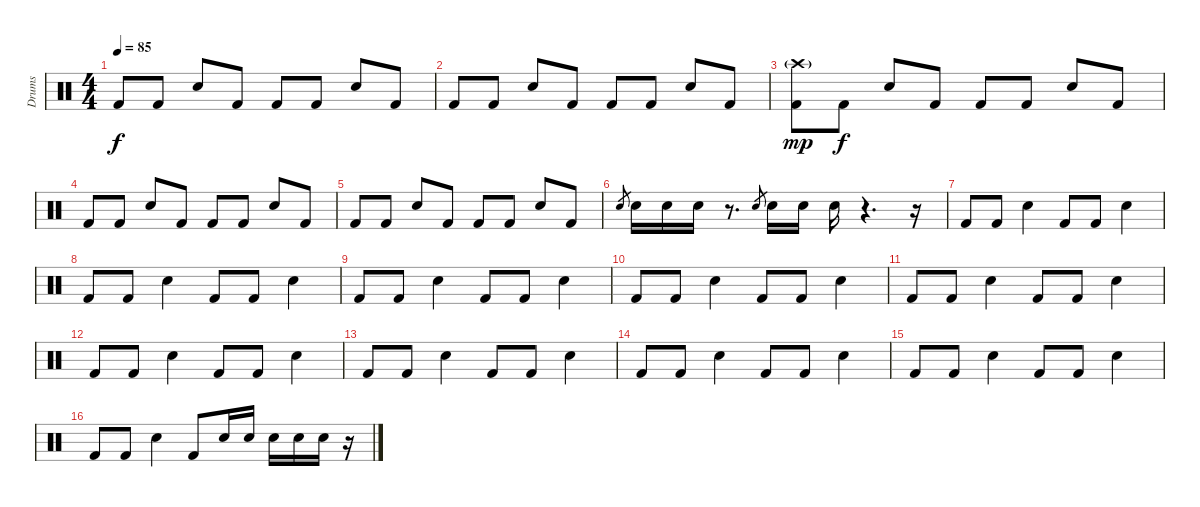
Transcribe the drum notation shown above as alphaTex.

\track ("Drums" "Drums") {instrument percussion}
\staff {score}
\articulation defaults
\ts (4 4)
\tempo 85
\clef neutral
\ks c "Kick (hit) 2".8{dy f} "Kick (hit) 2".8 "Electric Snare (hit)".8 "Kick (hit) 2".8 "Kick (hit) 2".8 "Kick (hit) 2".8 "Electric Snare (hit)".8 "Kick (hit) 2".8
|
"Kick (hit) 2".8 "Kick (hit) 2".8 "Electric Snare (hit)".8 "Kick (hit) 2".8 "Kick (hit) 2".8 "Kick (hit) 2".8 "Electric Snare (hit)".8 "Kick (hit) 2".8 |
("Kick (hit) 2" "Crash high (hit)"{g}).8{dy mp} "Kick (hit) 2".8{dy f} "Electric Snare (hit)".8 "Kick (hit) 2".8 "Kick (hit) 2".8 "Kick (hit) 2".8 "Electric Snare (hit)".8 "Kick (hit) 2".8 |
"Kick (hit) 2".8 "Kick (hit) 2".8 "Electric Snare (hit)".8 "Kick (hit) 2".8 "Kick (hit) 2".8 "Kick (hit) 2".8 "Electric Snare (hit)".8 "Kick (hit) 2".8 |
"Kick (hit) 2".8 "Kick (hit) 2".8 "Electric Snare (hit)".8 "Kick (hit) 2".8 "Kick (hit) 2".8 "Kick (hit) 2".8 "Electric Snare (hit)".8 "Kick (hit) 2".8 |
"Electric Snare (hit)".8{gr} "Electric Snare (hit)".16 "Electric Snare (hit)".16 "Electric Snare (hit)".16 r.8{d} "Electric Snare (hit)".8{gr} "Electric Snare (hit)".16 "Electric Snare (hit)".16 "Electric Snare (hit)".16 r.4{d} r.16 |
"Kick (hit) 2".8 "Kick (hit) 2".8 "Electric Snare (hit)".4 "Kick (hit) 2".8 "Kick (hit) 2".8 "Electric Snare (hit)".4 |
"Kick (hit) 2".8 "Kick (hit) 2".8 "Electric Snare (hit)".4 "Kick (hit) 2".8 "Kick (hit) 2".8 "Electric Snare (hit)".4 |
"Kick (hit) 2".8 "Kick (hit) 2".8 "Electric Snare (hit)".4 "Kick (hit) 2".8 "Kick (hit) 2".8 "Electric Snare (hit)".4 |
"Kick (hit) 2".8 "Kick (hit) 2".8 "Electric Snare (hit)".4 "Kick (hit) 2".8 "Kick (hit) 2".8 "Electric Snare (hit)".4 |
"Kick (hit) 2".8 "Kick (hit) 2".8 "Electric Snare (hit)".4 "Kick (hit) 2".8 "Kick (hit) 2".8 "Electric Snare (hit)".4 |
"Kick (hit) 2".8 "Kick (hit) 2".8 "Electric Snare (hit)".4 "Kick (hit) 2".8 "Kick (hit) 2".8 "Electric Snare (hit)".4 |
"Kick (hit) 2".8 "Kick (hit) 2".8 "Electric Snare (hit)".4 "Kick (hit) 2".8 "Kick (hit) 2".8 "Electric Snare (hit)".4 |
"Kick (hit) 2".8 "Kick (hit) 2".8 "Electric Snare (hit)".4 "Kick (hit) 2".8 "Kick (hit) 2".8 "Electric Snare (hit)".4 |
"Kick (hit) 2".8 "Kick (hit) 2".8 "Electric Snare (hit)".4 "Kick (hit) 2".8 "Kick (hit) 2".8 "Electric Snare (hit)".4 |
"Kick (hit) 2".8 "Kick (hit) 2".8 "Electric Snare (hit)".4 "Kick (hit) 2".8 "Electric Snare (hit)".16 "Electric Snare (hit)".16 "Electric Snare (hit)".16 "Electric Snare (hit)".16 "Electric Snare (hit)".16 r.16
